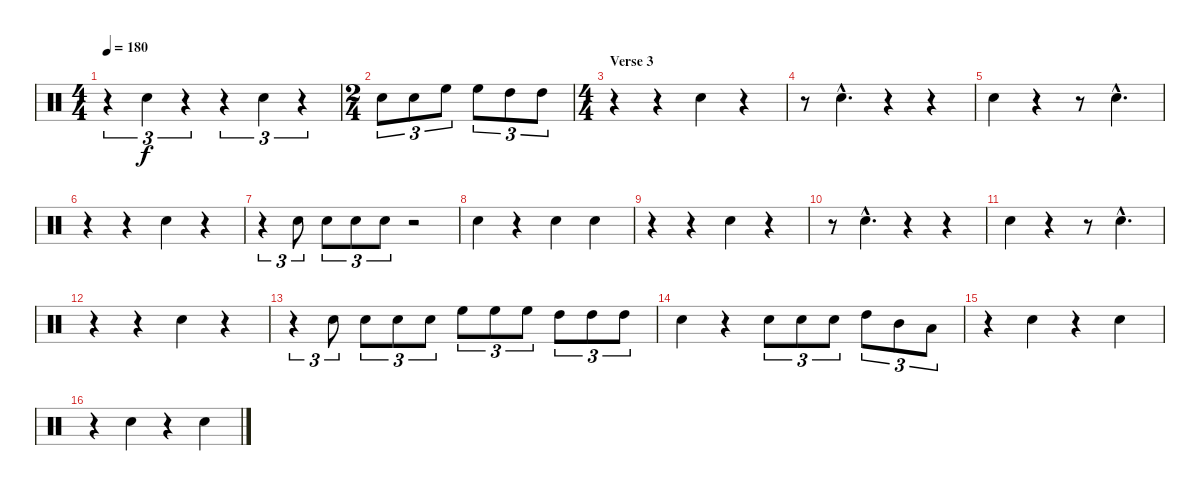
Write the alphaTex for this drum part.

\track "" {instrument percussion}
\staff {score}
\articulation defaults
\ts (4 4)
\tempo 180
\clef neutral
\ks c
r.4{tu (3 2) dy f} "Electric Snare (hit)".4{tu (3 2)} r.4{tu (3 2)} r.4{tu (3 2)} "Electric Snare (hit)".4{tu (3 2)} r.4{tu (3 2)} |
\ts (2 4)
"Electric Snare (hit)".8{tu (3 2)} "Electric Snare (hit)".8{tu (3 2)} "High Floor Tom (hit)".8{tu (3 2)} "High Floor Tom (hit)".8{tu (3 2)} "High Tom (hit)".8{tu (3 2)} "High Tom (hit)".8{tu (3 2)} |
\ts (4 4)
\section ("" "Verse 3")
r.4 r.4 "Electric Snare (hit)".4 r.4 |
r.8 "Electric Snare (hit)"{hac}.4{d} r.4 r.4 |
"Electric Snare (hit)".4 r.4 r.8 "Electric Snare (hit)"{hac}.4{d} |
r.4 r.4 "Electric Snare (hit)".4 r.4 |
r.4{tu (3 2)} "Electric Snare (hit)".8{tu (3 2)} "Electric Snare (hit)".8{tu (3 2)} "Electric Snare (hit)".8{tu (3 2)} "Electric Snare (hit)".8{tu (3 2)} r.2 |
"Electric Snare (hit)".4 r.4 "Electric Snare (hit)".4 "Electric Snare (hit)".4 |
r.4 r.4 "Electric Snare (hit)".4 r.4 |
r.8 "Electric Snare (hit)"{hac}.4{d} r.4 r.4 |
"Electric Snare (hit)".4 r.4 r.8 "Electric Snare (hit)"{hac}.4{d} |
r.4 r.4 "Electric Snare (hit)".4 r.4 |
r.4{tu (3 2)} "Electric Snare (hit)".8{tu (3 2)} "Electric Snare (hit)".8{tu (3 2)} "Electric Snare (hit)".8{tu (3 2)} "Electric Snare (hit)".8{tu (3 2)} "High Floor Tom (hit)".8{tu (3 2)} "High Floor Tom (hit)".8{tu (3 2)} "High Floor Tom (hit)".8{tu (3 2)} "High Tom (hit)".8{tu (3 2)} "High Tom (hit)".8{tu (3 2)} "High Tom (hit)".8{tu (3 2)} |
"Electric Snare (hit)".4 r.4 "Electric Snare (hit)".8{tu (3 2)} "Electric Snare (hit)".8{tu (3 2)} "Electric Snare (hit)".8{tu (3 2)} "High Tom (hit)".8{tu (3 2)} "Mid Tom (hit)".8{tu (3 2)} "Low Tom (hit)".8{tu (3 2)} |
r.4 "Electric Snare (hit)".4 r.4 "Electric Snare (hit)".4 |
r.4 "Electric Snare (hit)".4 r.4 "Electric Snare (hit)".4
